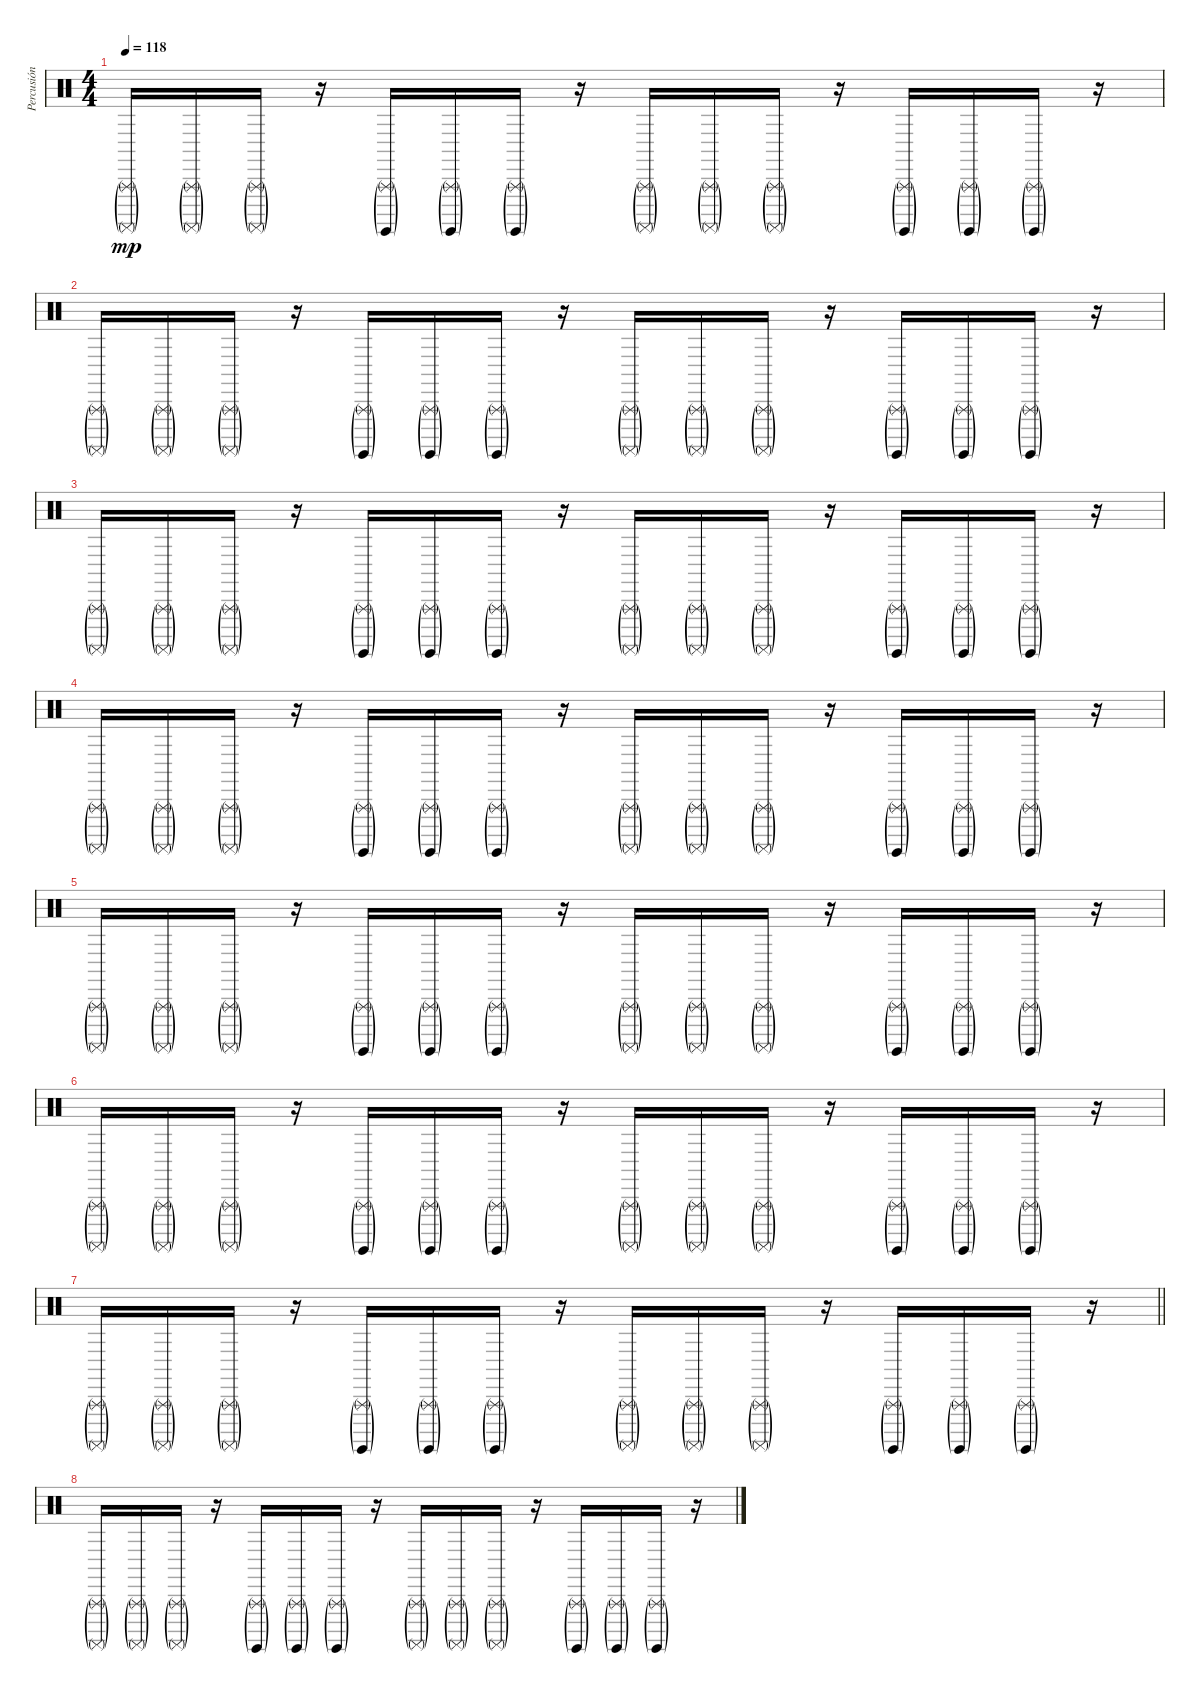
\track ("Percusión" "Percusión") {instrument percussion}
\staff {score}
\articulation defaults
\ts (4 4)
\tempo 118
\clef neutral
\ks c
("Triangle (rnute)"{g} "Surdo (mute)"{g}).16{dy mp} ("Triangle (rnute)"{g} "Surdo (mute)"{g}).16 ("Triangle (rnute)"{g} "Surdo (mute)"{g}).16 r.16 ("Triangle (rnute)"{g} "Surdo (hit)"{g}).16 ("Triangle (rnute)"{g} "Surdo (hit)"{g}).16 ("Triangle (rnute)"{g} "Surdo (hit)"{g}).16 r.16 ("Triangle (rnute)"{g} "Surdo (mute)"{g}).16 ("Triangle (rnute)"{g} "Surdo (mute)"{g}).16 ("Triangle (rnute)"{g} "Surdo (mute)"{g}).16 r.16 ("Triangle (rnute)"{g} "Surdo (hit)"{g}).16 ("Triangle (rnute)"{g} "Surdo (hit)"{g}).16 ("Triangle (rnute)"{g} "Surdo (hit)"{g}).16 r.16 |
("Triangle (rnute)"{g} "Surdo (mute)"{g}).16 ("Triangle (rnute)"{g} "Surdo (mute)"{g}).16 ("Triangle (rnute)"{g} "Surdo (mute)"{g}).16 r.16 ("Triangle (rnute)"{g} "Surdo (hit)"{g}).16 ("Triangle (rnute)"{g} "Surdo (hit)"{g}).16 ("Triangle (rnute)"{g} "Surdo (hit)"{g}).16 r.16 ("Triangle (rnute)"{g} "Surdo (mute)"{g}).16 ("Triangle (rnute)"{g} "Surdo (mute)"{g}).16 ("Triangle (rnute)"{g} "Surdo (mute)"{g}).16 r.16 ("Triangle (rnute)"{g} "Surdo (hit)"{g}).16 ("Triangle (rnute)"{g} "Surdo (hit)"{g}).16 ("Triangle (rnute)"{g} "Surdo (hit)"{g}).16 r.16 |
("Triangle (rnute)"{g} "Surdo (mute)"{g}).16 ("Triangle (rnute)"{g} "Surdo (mute)"{g}).16 ("Triangle (rnute)"{g} "Surdo (mute)"{g}).16 r.16 ("Triangle (rnute)"{g} "Surdo (hit)"{g}).16 ("Triangle (rnute)"{g} "Surdo (hit)"{g}).16 ("Triangle (rnute)"{g} "Surdo (hit)"{g}).16 r.16 ("Triangle (rnute)"{g} "Surdo (mute)"{g}).16 ("Triangle (rnute)"{g} "Surdo (mute)"{g}).16 ("Triangle (rnute)"{g} "Surdo (mute)"{g}).16 r.16 ("Triangle (rnute)"{g} "Surdo (hit)"{g}).16 ("Triangle (rnute)"{g} "Surdo (hit)"{g}).16 ("Triangle (rnute)"{g} "Surdo (hit)"{g}).16 r.16 |
("Triangle (rnute)"{g} "Surdo (mute)"{g}).16 ("Triangle (rnute)"{g} "Surdo (mute)"{g}).16 ("Triangle (rnute)"{g} "Surdo (mute)"{g}).16 r.16 ("Triangle (rnute)"{g} "Surdo (hit)"{g}).16 ("Triangle (rnute)"{g} "Surdo (hit)"{g}).16 ("Triangle (rnute)"{g} "Surdo (hit)"{g}).16 r.16 ("Triangle (rnute)"{g} "Surdo (mute)"{g}).16 ("Triangle (rnute)"{g} "Surdo (mute)"{g}).16 ("Triangle (rnute)"{g} "Surdo (mute)"{g}).16 r.16 ("Triangle (rnute)"{g} "Surdo (hit)"{g}).16 ("Triangle (rnute)"{g} "Surdo (hit)"{g}).16 ("Triangle (rnute)"{g} "Surdo (hit)"{g}).16 r.16 |
("Triangle (rnute)"{g} "Surdo (mute)"{g}).16 ("Triangle (rnute)"{g} "Surdo (mute)"{g}).16 ("Triangle (rnute)"{g} "Surdo (mute)"{g}).16 r.16 ("Triangle (rnute)"{g} "Surdo (hit)"{g}).16 ("Triangle (rnute)"{g} "Surdo (hit)"{g}).16 ("Triangle (rnute)"{g} "Surdo (hit)"{g}).16 r.16 ("Triangle (rnute)"{g} "Surdo (mute)"{g}).16 ("Triangle (rnute)"{g} "Surdo (mute)"{g}).16 ("Triangle (rnute)"{g} "Surdo (mute)"{g}).16 r.16 ("Triangle (rnute)"{g} "Surdo (hit)"{g}).16 ("Triangle (rnute)"{g} "Surdo (hit)"{g}).16 ("Triangle (rnute)"{g} "Surdo (hit)"{g}).16 r.16 |
("Triangle (rnute)"{g} "Surdo (mute)"{g}).16 ("Triangle (rnute)"{g} "Surdo (mute)"{g}).16 ("Triangle (rnute)"{g} "Surdo (mute)"{g}).16 r.16 ("Triangle (rnute)"{g} "Surdo (hit)"{g}).16 ("Triangle (rnute)"{g} "Surdo (hit)"{g}).16 ("Triangle (rnute)"{g} "Surdo (hit)"{g}).16 r.16 ("Triangle (rnute)"{g} "Surdo (mute)"{g}).16 ("Triangle (rnute)"{g} "Surdo (mute)"{g}).16 ("Triangle (rnute)"{g} "Surdo (mute)"{g}).16 r.16 ("Triangle (rnute)"{g} "Surdo (hit)"{g}).16 ("Triangle (rnute)"{g} "Surdo (hit)"{g}).16 ("Triangle (rnute)"{g} "Surdo (hit)"{g}).16 r.16 |
\barLineRight lightlight
("Triangle (rnute)"{g} "Surdo (mute)"{g}).16 ("Triangle (rnute)"{g} "Surdo (mute)"{g}).16 ("Triangle (rnute)"{g} "Surdo (mute)"{g}).16 r.16 ("Triangle (rnute)"{g} "Surdo (hit)"{g}).16 ("Triangle (rnute)"{g} "Surdo (hit)"{g}).16 ("Triangle (rnute)"{g} "Surdo (hit)"{g}).16 r.16 ("Triangle (rnute)"{g} "Surdo (mute)"{g}).16 ("Triangle (rnute)"{g} "Surdo (mute)"{g}).16 ("Triangle (rnute)"{g} "Surdo (mute)"{g}).16 r.16 ("Triangle (rnute)"{g} "Surdo (hit)"{g}).16 ("Triangle (rnute)"{g} "Surdo (hit)"{g}).16 ("Triangle (rnute)"{g} "Surdo (hit)"{g}).16 r.16 |
("Triangle (rnute)"{g} "Surdo (mute)"{g}).16 ("Triangle (rnute)"{g} "Surdo (mute)"{g}).16 ("Triangle (rnute)"{g} "Surdo (mute)"{g}).16 r.16 ("Triangle (rnute)"{g} "Surdo (hit)"{g}).16 ("Triangle (rnute)"{g} "Surdo (hit)"{g}).16 ("Triangle (rnute)"{g} "Surdo (hit)"{g}).16 r.16 ("Triangle (rnute)"{g} "Surdo (mute)"{g}).16 ("Triangle (rnute)"{g} "Surdo (mute)"{g}).16 ("Triangle (rnute)"{g} "Surdo (mute)"{g}).16 r.16 ("Triangle (rnute)"{g} "Surdo (hit)"{g}).16 ("Triangle (rnute)"{g} "Surdo (hit)"{g}).16 ("Triangle (rnute)"{g} "Surdo (hit)"{g}).16 r.16
